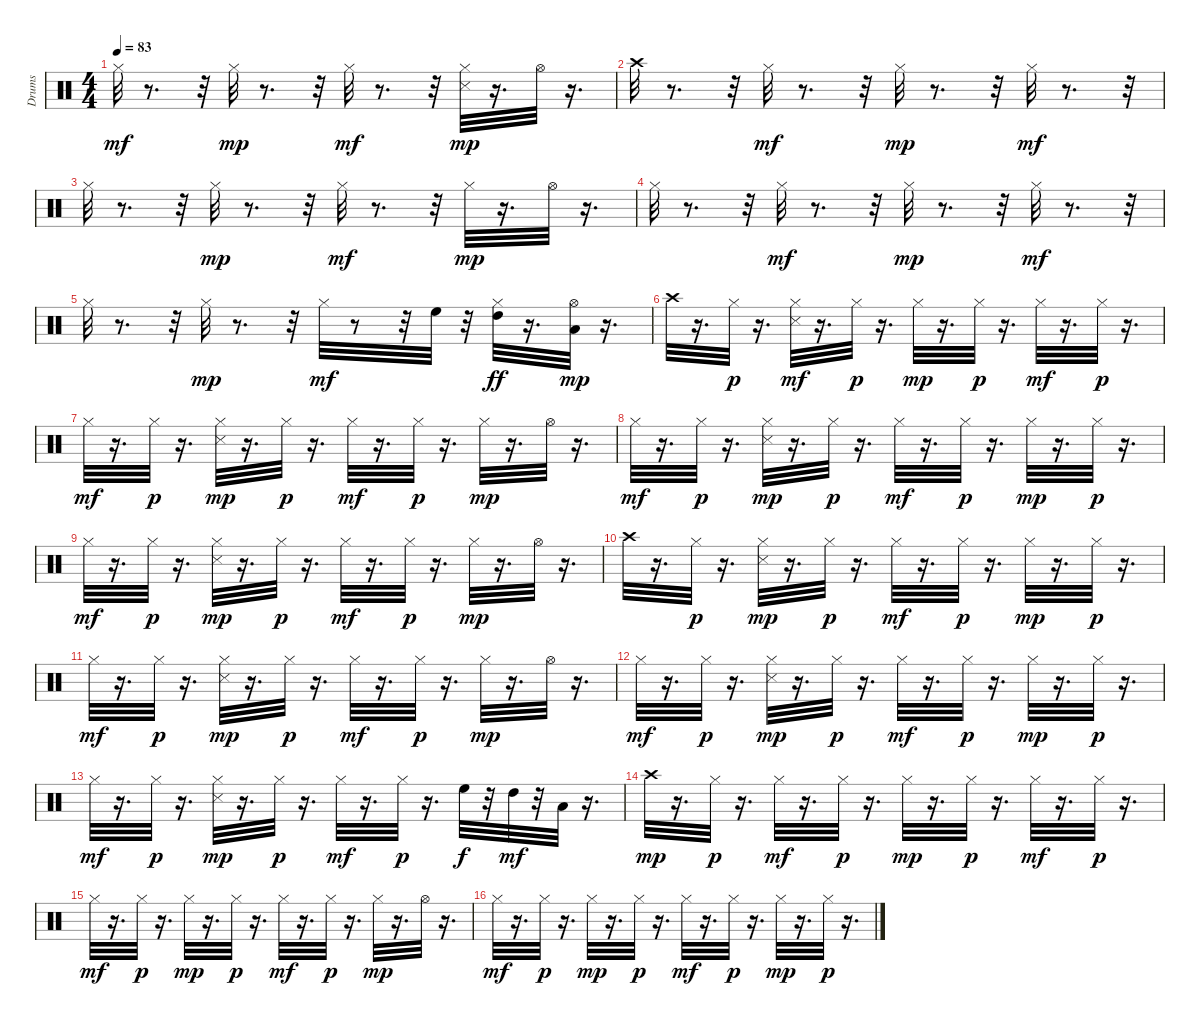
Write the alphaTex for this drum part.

\track ("Drums" "Drums") {instrument percussion}
\staff {score}
\articulation defaults
\ts (4 4)
\tempo 83
\clef neutral
\ks c "Hi-Hat (closed)".32{dy mf}
r.8{d} r.32 "Hi-Hat (closed)".32{dy mp} r.8{d} r.32 "Hi-Hat (closed)".32{dy mf} r.8{d} r.32 ("Snare (side stick) 3" "Hi-Hat (closed)").32{dy mp} r.16{d} "Hi-Hat (open)".32 r.16{d} |
"Crash high (hit)".32 r.8{d} r.32 "Hi-Hat (closed)".32{dy mf} r.8{d} r.32 "Hi-Hat (closed)".32{dy mp} r.8{d} r.32 "Hi-Hat (closed)".32{dy mf} r.8{d} r.32 |
"Hi-Hat (closed)".32 r.8{d} r.32 "Hi-Hat (closed)".32{dy mp} r.8{d} r.32 "Hi-Hat (closed)".32{dy mf} r.8{d} r.32 "Hi-Hat (closed)".32{dy mp} r.16{d} "Hi-Hat (open)".32 r.16{d} |
"Hi-Hat (closed)".32 r.8{d} r.32 "Hi-Hat (closed)".32{dy mf} r.8{d} r.32 "Hi-Hat (closed)".32{dy mp} r.8{d} r.32 "Hi-Hat (closed)".32{dy mf} r.8{d} r.32 |
"Hi-Hat (closed)".32 r.8{d} r.32 "Hi-Hat (closed)".32{dy mp} r.8{d} r.32 "Hi-Hat (closed)".32{dy mf} r.8 r.32 "High Floor Tom (hit)".32 r.32 ("Hi-Hat (closed)" "High Tom (hit)").32{dy ff} r.16{d} ("Hi-Hat (open)" "Low Tom (hit)").32{dy mp} r.16{d} |
"Crash high (hit)".32 r.16{d} "Hi-Hat (closed)".32{dy p} r.16{d} ("Snare (side stick) 3" "Hi-Hat (closed)").32{dy mf} r.16{d} "Hi-Hat (closed)".32{dy p} r.16{d} "Hi-Hat (closed)".32{dy mp} r.16{d} "Hi-Hat (closed)".32{dy p} r.16{d} "Hi-Hat (closed)".32{dy mf} r.16{d} "Hi-Hat (closed)".32{dy p} r.16{d} |
"Hi-Hat (closed)".32{dy mf} r.16{d} "Hi-Hat (closed)".32{dy p} r.16{d} ("Snare (side stick) 3" "Hi-Hat (closed)").32{dy mp} r.16{d} "Hi-Hat (closed)".32{dy p} r.16{d} "Hi-Hat (closed)".32{dy mf} r.16{d} "Hi-Hat (closed)".32{dy p} r.16{d} "Hi-Hat (closed)".32{dy mp} r.16{d} "Hi-Hat (open)".32 r.16{d} |
"Hi-Hat (closed)".32{dy mf} r.16{d} "Hi-Hat (closed)".32{dy p} r.16{d} ("Snare (side stick) 3" "Hi-Hat (closed)").32{dy mp} r.16{d} "Hi-Hat (closed)".32{dy p} r.16{d} "Hi-Hat (closed)".32{dy mf} r.16{d} "Hi-Hat (closed)".32{dy p} r.16{d} "Hi-Hat (closed)".32{dy mp} r.16{d} "Hi-Hat (closed)".32{dy p} r.16{d} |
"Hi-Hat (closed)".32{dy mf} r.16{d} "Hi-Hat (closed)".32{dy p} r.16{d} ("Snare (side stick) 3" "Hi-Hat (closed)").32{dy mp} r.16{d} "Hi-Hat (closed)".32{dy p} r.16{d} "Hi-Hat (closed)".32{dy mf} r.16{d} "Hi-Hat (closed)".32{dy p} r.16{d} "Hi-Hat (closed)".32{dy mp} r.16{d} "Hi-Hat (open)".32 r.16{d} |
"Crash high (hit)".32 r.16{d} "Hi-Hat (closed)".32{dy p} r.16{d} ("Snare (side stick) 3" "Hi-Hat (closed)").32{dy mp} r.16{d} "Hi-Hat (closed)".32{dy p} r.16{d} "Hi-Hat (closed)".32{dy mf} r.16{d} "Hi-Hat (closed)".32{dy p} r.16{d} "Hi-Hat (closed)".32{dy mp} r.16{d} "Hi-Hat (closed)".32{dy p} r.16{d} |
"Hi-Hat (closed)".32{dy mf} r.16{d} "Hi-Hat (closed)".32{dy p} r.16{d} ("Snare (side stick) 3" "Hi-Hat (closed)").32{dy mp} r.16{d} "Hi-Hat (closed)".32{dy p} r.16{d} "Hi-Hat (closed)".32{dy mf} r.16{d} "Hi-Hat (closed)".32{dy p} r.16{d} "Hi-Hat (closed)".32{dy mp} r.16{d} "Hi-Hat (open)".32 r.16{d} |
"Hi-Hat (closed)".32{dy mf} r.16{d} "Hi-Hat (closed)".32{dy p} r.16{d} ("Snare (side stick) 3" "Hi-Hat (closed)").32{dy mp} r.16{d} "Hi-Hat (closed)".32{dy p} r.16{d} "Hi-Hat (closed)".32{dy mf} r.16{d} "Hi-Hat (closed)".32{dy p} r.16{d} "Hi-Hat (closed)".32{dy mp} r.16{d} "Hi-Hat (closed)".32{dy p} r.16{d} |
"Hi-Hat (closed)".32{dy mf} r.16{d} "Hi-Hat (closed)".32{dy p} r.16{d} ("Snare (side stick) 3" "Hi-Hat (closed)").32{dy mp} r.16{d} "Hi-Hat (closed)".32{dy p} r.16{d} "Hi-Hat (closed)".32{dy mf} r.16{d} "Hi-Hat (closed)".32{dy p} r.16{d} "High Floor Tom (hit)".32{dy f} r.32 "High Tom (hit)".32{dy mf} r.32 "Low Tom (hit)".32 r.16{d} |
"Crash high (hit)".32{dy mp} r.16{d} "Hi-Hat (closed)".32{dy p} r.16{d} "Hi-Hat (closed)".32{dy mf} r.16{d} "Hi-Hat (closed)".32{dy p} r.16{d} "Hi-Hat (closed)".32{dy mp} r.16{d} "Hi-Hat (closed)".32{dy p} r.16{d} "Hi-Hat (closed)".32{dy mf} r.16{d} "Hi-Hat (closed)".32{dy p} r.16{d} |
"Hi-Hat (closed)".32{dy mf} r.16{d} "Hi-Hat (closed)".32{dy p} r.16{d} "Hi-Hat (closed)".32{dy mp} r.16{d} "Hi-Hat (closed)".32{dy p} r.16{d} "Hi-Hat (closed)".32{dy mf} r.16{d} "Hi-Hat (closed)".32{dy p} r.16{d} "Hi-Hat (closed)".32{dy mp} r.16{d} "Hi-Hat (open)".32 r.16{d} |
"Hi-Hat (closed)".32{dy mf} r.16{d} "Hi-Hat (closed)".32{dy p} r.16{d} "Hi-Hat (closed)".32{dy mp} r.16{d} "Hi-Hat (closed)".32{dy p} r.16{d} "Hi-Hat (closed)".32{dy mf} r.16{d} "Hi-Hat (closed)".32{dy p} r.16{d} "Hi-Hat (closed)".32{dy mp} r.16{d} "Hi-Hat (closed)".32{dy p} r.16{d}
